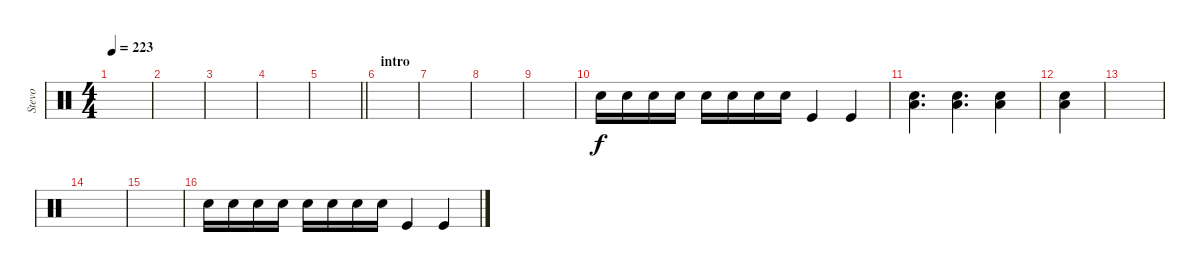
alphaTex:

\track ("Stevo" "Stevo") {instrument percussion}
\staff {score}
\articulation defaults
\ts (4 4)
\tempo 223
\clef neutral
\ks c
|
|
|
|
\barLineRight lightlight
|
\section ("" "intro")
|
|
|
|
"Electric Snare (hit)".16 "Electric Snare (hit)".16 "Electric Snare (hit)".16 "Electric Snare (hit)".16 "Electric Snare (hit)".16 "Electric Snare (hit)".16 "Electric Snare (hit)".16 "Electric Snare (hit)".16 "Kick (hit)".4 "Kick (hit)".4 |
("Electric Snare (hit)" "Low Floor Tom (hit)").4{d} ("Electric Snare (hit)" "Low Floor Tom (hit)").4{d} ("Electric Snare (hit)" "Low Floor Tom (hit)").4 |
("Electric Snare (hit)" "Low Floor Tom (hit)").4 |
|
|
|
"Electric Snare (hit)".16 "Electric Snare (hit)".16 "Electric Snare (hit)".16 "Electric Snare (hit)".16 "Electric Snare (hit)".16 "Electric Snare (hit)".16 "Electric Snare (hit)".16 "Electric Snare (hit)".16 "Kick (hit)".4 "Kick (hit)".4
